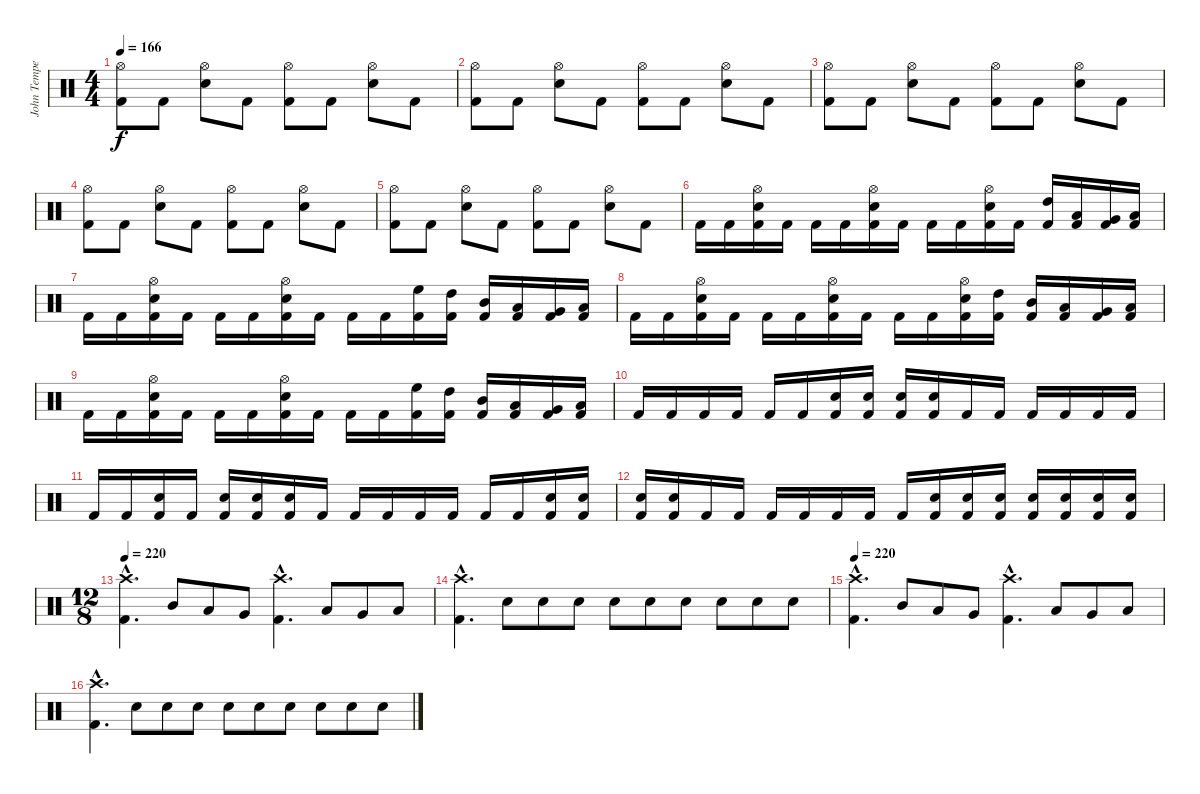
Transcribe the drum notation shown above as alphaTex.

\track ("John Tempesta" "John Tempe") {instrument percussion}
\staff {score}
\articulation defaults
\ts (4 4)
\tempo 166
\clef neutral
\ks c
("Hi-Hat (open)" "Kick (hit) 2").8{dy f} "Kick (hit) 2".8 ("Hi-Hat (open)" "Electric Snare (hit)").8 "Kick (hit) 2".8 ("Hi-Hat (open)" "Kick (hit) 2").8 "Kick (hit) 2".8 ("Hi-Hat (open)" "Electric Snare (hit)").8 "Kick (hit) 2".8 |
("Hi-Hat (open)" "Kick (hit) 2").8 "Kick (hit) 2".8 ("Hi-Hat (open)" "Electric Snare (hit)").8 "Kick (hit) 2".8 ("Hi-Hat (open)" "Kick (hit) 2").8 "Kick (hit) 2".8 ("Hi-Hat (open)" "Electric Snare (hit)").8 "Kick (hit) 2".8 |
("Hi-Hat (open)" "Kick (hit) 2").8 "Kick (hit) 2".8 ("Hi-Hat (open)" "Electric Snare (hit)").8 "Kick (hit) 2".8 ("Hi-Hat (open)" "Kick (hit) 2").8 "Kick (hit) 2".8 ("Hi-Hat (open)" "Electric Snare (hit)").8 "Kick (hit) 2".8 |
("Hi-Hat (open)" "Kick (hit) 2").8 "Kick (hit) 2".8 ("Hi-Hat (open)" "Electric Snare (hit)").8 "Kick (hit) 2".8 ("Hi-Hat (open)" "Kick (hit) 2").8 "Kick (hit) 2".8 ("Hi-Hat (open)" "Electric Snare (hit)").8 "Kick (hit) 2".8 |
("Hi-Hat (open)" "Kick (hit) 2").8 "Kick (hit) 2".8 ("Hi-Hat (open)" "Electric Snare (hit)").8 "Kick (hit) 2".8 ("Hi-Hat (open)" "Kick (hit) 2").8 "Kick (hit) 2".8 ("Hi-Hat (open)" "Electric Snare (hit)").8 "Kick (hit) 2".8 |
"Kick (hit) 2".16 "Kick (hit) 2".16 ("Hi-Hat (open)" "Electric Snare (hit)" "Kick (hit) 2").16 "Kick (hit) 2".16 "Kick (hit) 2".16 "Kick (hit) 2".16 ("Hi-Hat (open)" "Electric Snare (hit)" "Kick (hit) 2").16 "Kick (hit) 2".16 "Kick (hit) 2".16 "Kick (hit) 2".16 ("Hi-Hat (open)" "Electric Snare (hit)" "Kick (hit) 2").16 "Kick (hit) 2".16 ("High Tom (hit)" "Kick (hit) 2").16 ("Low Tom (hit)" "Kick (hit) 2").16 ("Very Low Tom (hit)" "Kick (hit) 2").16 ("Low Floor Tom (hit)" "Kick (hit) 2").16 |
"Kick (hit) 2".16 "Kick (hit) 2".16 ("Hi-Hat (open)" "Electric Snare (hit)" "Kick (hit) 2").16 "Kick (hit) 2".16 "Kick (hit) 2".16 "Kick (hit) 2".16 ("Hi-Hat (open)" "Electric Snare (hit)" "Kick (hit) 2").16 "Kick (hit) 2".16 "Kick (hit) 2".16 "Kick (hit) 2".16 ("High Floor Tom (hit)" "Kick (hit) 2").16 ("High Tom (hit)" "Kick (hit) 2").16 ("Mid Tom (hit)" "Kick (hit) 2").16 ("Low Tom (hit)" "Kick (hit) 2").16 ("Very Low Tom (hit)" "Kick (hit) 2").16 ("Low Floor Tom (hit)" "Kick (hit) 2").16 |
"Kick (hit) 2".16 "Kick (hit) 2".16 ("Hi-Hat (open)" "Electric Snare (hit)" "Kick (hit) 2").16 "Kick (hit) 2".16 "Kick (hit) 2".16 "Kick (hit) 2".16 ("Hi-Hat (open)" "Electric Snare (hit)" "Kick (hit) 2").16 "Kick (hit) 2".16 "Kick (hit) 2".16 "Kick (hit) 2".16 ("Hi-Hat (open)" "Electric Snare (hit)" "Kick (hit) 2").16 ("High Tom (hit)" "Kick (hit) 2").16 ("Mid Tom (hit)" "Kick (hit) 2").16 ("Low Tom (hit)" "Kick (hit) 2").16 ("Very Low Tom (hit)" "Kick (hit) 2").16 ("Low Floor Tom (hit)" "Kick (hit) 2").16 |
"Kick (hit) 2".16 "Kick (hit) 2".16 ("Hi-Hat (open)" "Electric Snare (hit)" "Kick (hit) 2").16 "Kick (hit) 2".16 "Kick (hit) 2".16 "Kick (hit) 2".16 ("Hi-Hat (open)" "Electric Snare (hit)" "Kick (hit) 2").16 "Kick (hit) 2".16 "Kick (hit) 2".16 "Kick (hit) 2".16 ("High Floor Tom (hit)" "Kick (hit) 2").16 ("High Tom (hit)" "Kick (hit) 2").16 ("Mid Tom (hit)" "Kick (hit) 2").16 ("Low Tom (hit)" "Kick (hit) 2").16 ("Very Low Tom (hit)" "Kick (hit) 2").16 ("Low Floor Tom (hit)" "Kick (hit) 2").16 |
"Kick (hit) 2".16 "Kick (hit) 2".16 "Kick (hit) 2".16 "Kick (hit) 2".16 "Kick (hit) 2".16 "Kick (hit) 2".16 ("Electric Snare (hit)" "Kick (hit) 2").16 ("Electric Snare (hit)" "Kick (hit) 2").16 ("Electric Snare (hit)" "Kick (hit) 2").16 ("Electric Snare (hit)" "Kick (hit) 2").16 "Kick (hit) 2".16 "Kick (hit) 2".16 "Kick (hit) 2".16 "Kick (hit) 2".16 "Kick (hit) 2".16 "Kick (hit) 2".16 |
"Kick (hit) 2".16 "Kick (hit) 2".16 ("Electric Snare (hit)" "Kick (hit) 2").16 "Kick (hit) 2".16 ("Electric Snare (hit)" "Kick (hit) 2").16 ("Electric Snare (hit)" "Kick (hit) 2").16 ("Electric Snare (hit)" "Kick (hit) 2").16 "Kick (hit) 2".16 "Kick (hit) 2".16 "Kick (hit) 2".16 "Kick (hit) 2".16 "Kick (hit) 2".16 "Kick (hit) 2".16 "Kick (hit) 2".16 ("Electric Snare (hit)" "Kick (hit) 2").16 ("Electric Snare (hit)" "Kick (hit) 2").16 |
("Electric Snare (hit)" "Kick (hit) 2").16 ("Electric Snare (hit)" "Kick (hit) 2").16 "Kick (hit) 2".16 "Kick (hit) 2".16 "Kick (hit) 2".16 "Kick (hit) 2".16 "Kick (hit) 2".16 "Kick (hit) 2".16 "Kick (hit) 2".16 ("Electric Snare (hit)" "Kick (hit) 2").16 ("Electric Snare (hit)" "Kick (hit) 2").16 ("Electric Snare (hit)" "Kick (hit) 2").16 ("Electric Snare (hit)" "Kick (hit) 2").16 ("Electric Snare (hit)" "Kick (hit) 2").16 ("Electric Snare (hit)" "Kick (hit) 2").16 ("Electric Snare (hit)" "Kick (hit) 2").16 |
\ts (12 8)
\tempo 220
("Crash high (hit)"{hac} "Kick (hit) 2"{hac}).4{d} "Mid Tom (hit)".8 "Low Tom (hit)".8 "Very Low Tom (hit)".8 ("Crash high (hit)"{hac} "Kick (hit) 2"{hac}).4{d} "Low Tom (hit)".8 "Very Low Tom (hit)".8 "Low Floor Tom (hit)".8 |
("Crash high (hit)"{hac} "Kick (hit) 2"{hac}).4{d} "Electric Snare (hit)".8 "Electric Snare (hit)".8 "Electric Snare (hit)".8 "Electric Snare (hit)".8 "Electric Snare (hit)".8 "Electric Snare (hit)".8 "Electric Snare (hit)".8 "Electric Snare (hit)".8 "Electric Snare (hit)".8 |
\tempo 220
("Crash high (hit)"{hac} "Kick (hit) 2"{hac}).4{d} "Mid Tom (hit)".8 "Low Tom (hit)".8 "Very Low Tom (hit)".8 ("Crash high (hit)"{hac} "Kick (hit) 2"{hac}).4{d} "Low Tom (hit)".8 "Very Low Tom (hit)".8 "Low Floor Tom (hit)".8 |
("Crash high (hit)"{hac} "Kick (hit) 2"{hac}).4{d} "Electric Snare (hit)".8 "Electric Snare (hit)".8 "Electric Snare (hit)".8 "Electric Snare (hit)".8 "Electric Snare (hit)".8 "Electric Snare (hit)".8 "Electric Snare (hit)".8 "Electric Snare (hit)".8 "Electric Snare (hit)".8
